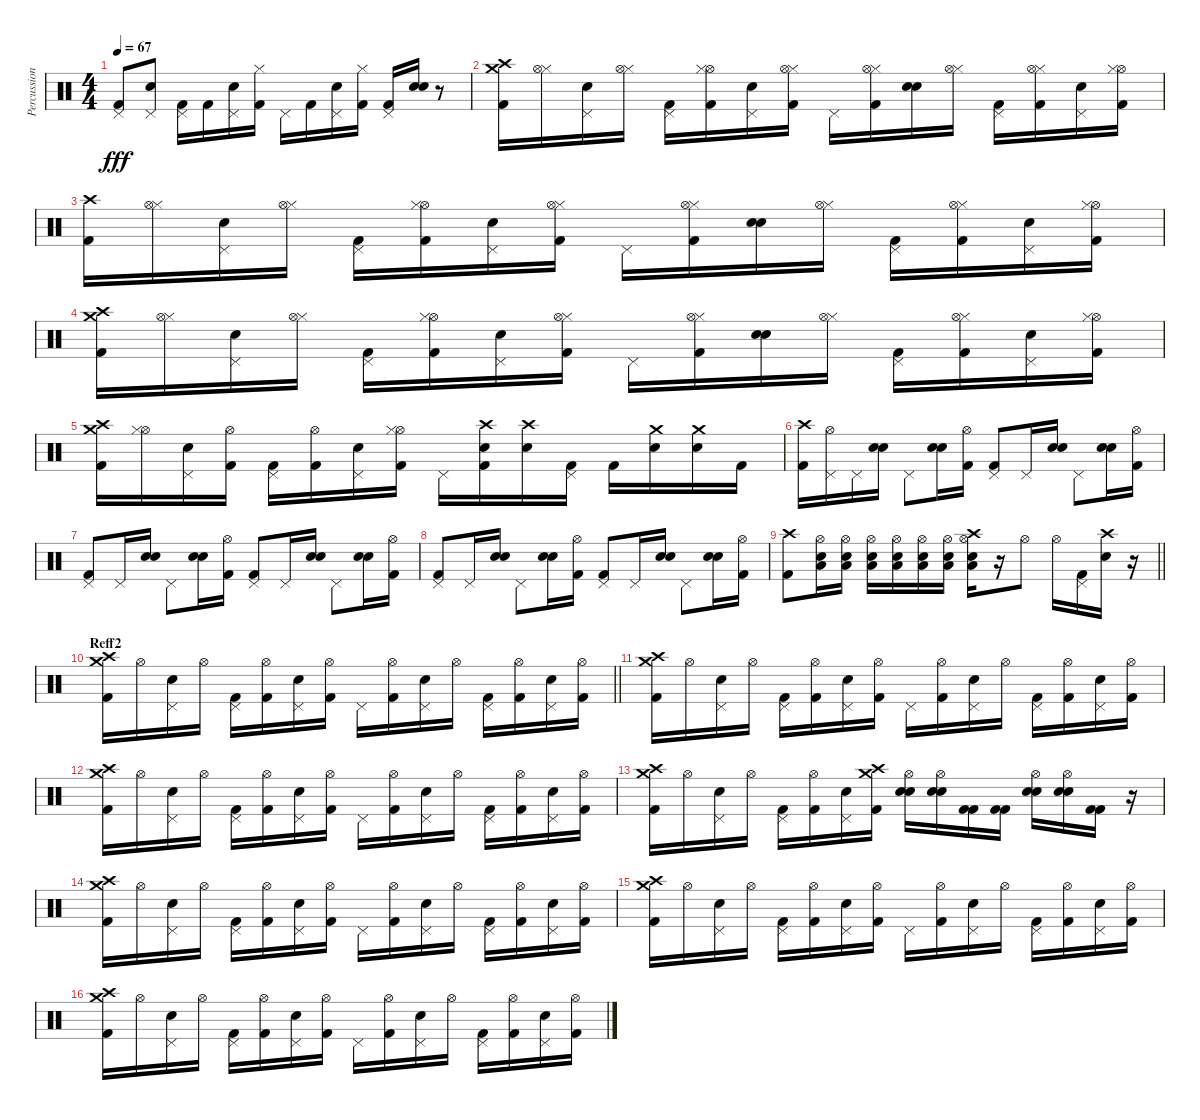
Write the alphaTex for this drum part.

\track ("Percussion(Tomi)" "Percussion") {instrument percussion}
\staff {score}
\articulation defaults
\ts (4 4)
\tempo 67
\clef neutral
\ks c
("Kick (hit) 2" "Pedal Hi-Hat (hit)").8{dy fff} ("Electric Snare (hit)" "Pedal Hi-Hat (hit)").8 ("Pedal Hi-Hat (hit)" "Kick (hit) 2").16 "Kick (hit) 2".16 ("Pedal Hi-Hat (hit)" "Electric Snare (hit)").16 ("Kick (hit) 2" "Hi-Hat (closed)").16 "Pedal Hi-Hat (hit)".16 "Kick (hit) 2".16 ("Pedal Hi-Hat (hit)" "Electric Snare (hit)").16 ("Kick (hit) 2" "Hi-Hat (closed)").16 ("Pedal Hi-Hat (hit)" "Kick (hit) 2").16 ("Electric Snare (hit)" "Electric Snare (hit)").16 r.8 |
("Kick (hit) 2" "Crash high (hit)" "Crash medium (hit)").16 ("Hi-Hat (closed)" "Hi-Hat (open)").16 ("Electric Snare (hit)" "Pedal Hi-Hat (hit)").16 ("Hi-Hat (closed)" "Hi-Hat (open)").16 ("Kick (hit) 2" "Pedal Hi-Hat (hit)").16 ("Kick (hit) 2" "Hi-Hat (open)" "Hi-Hat (closed)").16 ("Pedal Hi-Hat (hit)" "Electric Snare (hit)").16 ("Kick (hit) 2" "Hi-Hat (closed)" "Hi-Hat (open)").16 "Pedal Hi-Hat (hit)".16 ("Hi-Hat (closed)" "Hi-Hat (open)" "Kick (hit) 2").16 ("Electric Snare (hit)" "Electric Snare (hit)").16 ("Hi-Hat (closed)" "Hi-Hat (open)").16 ("Kick (hit) 2" "Pedal Hi-Hat (hit)").16 ("Kick (hit) 2" "Hi-Hat (closed)" "Hi-Hat (open)").16 ("Pedal Hi-Hat (hit)" "Electric Snare (hit)").16 ("Hi-Hat (open)" "Kick (hit) 2" "Hi-Hat (closed)").16 |
("Kick (hit) 2" "Crash high (hit)").16 ("Hi-Hat (closed)" "Hi-Hat (open)").16 ("Electric Snare (hit)" "Pedal Hi-Hat (hit)").16 ("Hi-Hat (closed)" "Hi-Hat (open)").16 ("Kick (hit) 2" "Pedal Hi-Hat (hit)").16 ("Kick (hit) 2" "Hi-Hat (open)" "Hi-Hat (closed)").16 ("Pedal Hi-Hat (hit)" "Electric Snare (hit)").16 ("Kick (hit) 2" "Hi-Hat (closed)" "Hi-Hat (open)").16 "Pedal Hi-Hat (hit)".16 ("Hi-Hat (closed)" "Hi-Hat (open)" "Kick (hit) 2").16 ("Electric Snare (hit)" "Electric Snare (hit)").16 ("Hi-Hat (closed)" "Hi-Hat (open)").16 ("Kick (hit) 2" "Pedal Hi-Hat (hit)").16 ("Kick (hit) 2" "Hi-Hat (closed)" "Hi-Hat (open)").16 ("Pedal Hi-Hat (hit)" "Electric Snare (hit)").16 ("Hi-Hat (open)" "Kick (hit) 2" "Hi-Hat (closed)").16 |
("Kick (hit) 2" "Crash medium (hit)" "Crash high (hit)").16 ("Hi-Hat (closed)" "Hi-Hat (open)").16 ("Electric Snare (hit)" "Pedal Hi-Hat (hit)").16 ("Hi-Hat (closed)" "Hi-Hat (open)").16 ("Kick (hit) 2" "Pedal Hi-Hat (hit)").16 ("Kick (hit) 2" "Hi-Hat (open)" "Hi-Hat (closed)").16 ("Pedal Hi-Hat (hit)" "Electric Snare (hit)").16 ("Kick (hit) 2" "Hi-Hat (closed)" "Hi-Hat (open)").16 "Pedal Hi-Hat (hit)".16 ("Hi-Hat (closed)" "Hi-Hat (open)" "Kick (hit) 2").16 ("Electric Snare (hit)" "Electric Snare (hit)").16 ("Hi-Hat (closed)" "Hi-Hat (open)").16 ("Kick (hit) 2" "Pedal Hi-Hat (hit)").16 ("Kick (hit) 2" "Hi-Hat (closed)" "Hi-Hat (open)").16 ("Pedal Hi-Hat (hit)" "Electric Snare (hit)").16 ("Hi-Hat (open)" "Kick (hit) 2" "Hi-Hat (closed)").16 |
("Kick (hit) 2" "Crash high (hit)" "Crash medium (hit)").16 ("Hi-Hat (open)" "Hi-Hat (closed)").16 ("Pedal Hi-Hat (hit)" "Electric Snare (hit)").16 ("Kick (hit) 2" "Hi-Hat (open)").16 ("Kick (hit) 2" "Pedal Hi-Hat (hit)").16 ("Hi-Hat (open)" "Kick (hit) 2").16 ("Electric Snare (hit)" "Pedal Hi-Hat (hit)").16 ("Hi-Hat (open)" "Kick (hit) 2" "Hi-Hat (closed)").16 "Pedal Hi-Hat (hit)".16 ("Kick (hit) 2" "Electric Snare (hit)" "Crash high (hit)").16 ("Electric Snare (hit)" "Crash high (hit)").16 ("Pedal Hi-Hat (hit)" "Kick (hit) 2").16 "Kick (hit) 2".16 ("Electric Snare (hit)" "Crash medium (hit)").16 ("Electric Snare (hit)" "Crash medium (hit)").16 "Kick (hit) 2".16 |
("Kick (hit) 2" "Crash high (hit)").16 ("Hi-Hat (open)" "Pedal Hi-Hat (hit)").16 "Pedal Hi-Hat (hit)".16 ("Electric Snare (hit)" "Electric Snare (hit)").16{bd 240} "Pedal Hi-Hat (hit)".8 ("Electric Snare (hit)" "Electric Snare (hit)").16{bd 240} ("Hi-Hat (open)" "Kick (hit) 2").16 ("Kick (hit) 2" "Pedal Hi-Hat (hit)").8 "Pedal Hi-Hat (hit)".16 ("Electric Snare (hit)" "Electric Snare (hit)").16{bd 240} "Pedal Hi-Hat (hit)".8 ("Electric Snare (hit)" "Electric Snare (hit)").16{bd 240} ("Kick (hit) 2" "Hi-Hat (open)").16 |
("Kick (hit) 2" "Pedal Hi-Hat (hit)").8 "Pedal Hi-Hat (hit)".16 ("Electric Snare (hit)" "Electric Snare (hit)").16{bd 240} "Pedal Hi-Hat (hit)".8 ("Electric Snare (hit)" "Electric Snare (hit)").16{bd 240} ("Kick (hit) 2" "Hi-Hat (open)").16 ("Kick (hit) 2" "Pedal Hi-Hat (hit)").8 "Pedal Hi-Hat (hit)".16 ("Electric Snare (hit)" "Electric Snare (hit)").16{bd 240} "Pedal Hi-Hat (hit)".8 ("Electric Snare (hit)" "Electric Snare (hit)").16{bd 240} ("Kick (hit) 2" "Hi-Hat (open)").16 |
("Kick (hit) 2" "Pedal Hi-Hat (hit)").8 "Pedal Hi-Hat (hit)".16 ("Electric Snare (hit)" "Electric Snare (hit)").16{bd 240} "Pedal Hi-Hat (hit)".8 ("Electric Snare (hit)" "Electric Snare (hit)").16{bd 240} ("Kick (hit) 2" "Hi-Hat (open)").16 ("Kick (hit) 2" "Pedal Hi-Hat (hit)").8 "Pedal Hi-Hat (hit)".16 ("Electric Snare (hit)" "Electric Snare (hit)").16{bd 240} "Pedal Hi-Hat (hit)".8 ("Electric Snare (hit)" "Electric Snare (hit)").16{bd 240} ("Kick (hit) 2" "Hi-Hat (open)").16 |
\barLineRight lightlight
("Kick (hit) 2" "Crash high (hit)").8{volume 16} ("Hi-Hat (open)" "Electric Snare (hit)" "Low Floor Tom (hit)").16 ("Hi-Hat (open)" "Electric Snare (hit)" "Low Floor Tom (hit)").16 ("Hi-Hat (open)" "Electric Snare (hit)" "Low Floor Tom (hit)").16 ("Low Floor Tom (hit)" "Electric Snare (hit)" "Hi-Hat (open)").16 ("Low Floor Tom (hit)" "Electric Snare (hit)" "Hi-Hat (open)").16 ("Low Floor Tom (hit)" "Electric Snare (hit)" "Hi-Hat (open)").16 ("Electric Snare (hit)" "Low Floor Tom (hit)" "Hi-Hat (open)" "Crash high (hit)").16 r.16 "Hi-Hat (open)".8 "Hi-Hat (open)".16 ("Pedal Hi-Hat (hit)" "Kick (hit) 2").16 ("Electric Snare (hit)" "Crash high (hit)").16 r.16 |
\section ("" "Reff2")
\barLineRight lightlight
("Kick (hit) 2" "Crash high (hit)" "Crash medium (hit)").16 "Hi-Hat (open)".16 ("Electric Snare (hit)" "Pedal Hi-Hat (hit)").16 "Hi-Hat (open)".16 ("Kick (hit) 2" "Pedal Hi-Hat (hit)").16 ("Kick (hit) 2" "Hi-Hat (open)").16 ("Pedal Hi-Hat (hit)" "Electric Snare (hit)").16 ("Kick (hit) 2" "Hi-Hat (open)").16 "Pedal Hi-Hat (hit)".16 ("Kick (hit) 2" "Hi-Hat (open)").16 ("Pedal Hi-Hat (hit)" "Electric Snare (hit)").16 "Hi-Hat (open)".16 ("Kick (hit) 2" "Pedal Hi-Hat (hit)").16 ("Kick (hit) 2" "Hi-Hat (open)").16 ("Pedal Hi-Hat (hit)" "Electric Snare (hit)").16 ("Kick (hit) 2" "Hi-Hat (open)").16 |
("Kick (hit) 2" "Crash high (hit)" "Crash medium (hit)").16 "Hi-Hat (open)".16 ("Electric Snare (hit)" "Pedal Hi-Hat (hit)").16 "Hi-Hat (open)".16 ("Kick (hit) 2" "Pedal Hi-Hat (hit)").16 ("Kick (hit) 2" "Hi-Hat (open)").16 ("Pedal Hi-Hat (hit)" "Electric Snare (hit)").16 ("Kick (hit) 2" "Hi-Hat (open)").16 "Pedal Hi-Hat (hit)".16 ("Kick (hit) 2" "Hi-Hat (open)").16 ("Pedal Hi-Hat (hit)" "Electric Snare (hit)").16 "Hi-Hat (open)".16 ("Kick (hit) 2" "Pedal Hi-Hat (hit)").16 ("Kick (hit) 2" "Hi-Hat (open)").16 ("Pedal Hi-Hat (hit)" "Electric Snare (hit)").16 ("Kick (hit) 2" "Hi-Hat (open)").16 |
("Kick (hit) 2" "Crash high (hit)" "Crash medium (hit)").16 "Hi-Hat (open)".16 ("Electric Snare (hit)" "Pedal Hi-Hat (hit)").16 "Hi-Hat (open)".16 ("Kick (hit) 2" "Pedal Hi-Hat (hit)").16 ("Kick (hit) 2" "Hi-Hat (open)").16 ("Pedal Hi-Hat (hit)" "Electric Snare (hit)").16 ("Kick (hit) 2" "Hi-Hat (open)").16 "Pedal Hi-Hat (hit)".16 ("Kick (hit) 2" "Hi-Hat (open)").16 ("Pedal Hi-Hat (hit)" "Electric Snare (hit)").16 "Hi-Hat (open)".16 ("Kick (hit) 2" "Pedal Hi-Hat (hit)").16 ("Kick (hit) 2" "Hi-Hat (open)").16 ("Pedal Hi-Hat (hit)" "Electric Snare (hit)").16 ("Kick (hit) 2" "Hi-Hat (open)").16 |
("Kick (hit) 2" "Crash medium (hit)" "Crash high (hit)").16 "Hi-Hat (open)".16 ("Electric Snare (hit)" "Pedal Hi-Hat (hit)").16 "Hi-Hat (open)".16 ("Pedal Hi-Hat (hit)" "Kick (hit) 2").16 ("Kick (hit) 2" "Hi-Hat (open)").16 ("Pedal Hi-Hat (hit)" "Electric Snare (hit)").16 ("Kick (hit) 2" "Crash high (hit)" "Crash medium (hit)").16 ("Electric Snare (hit)" "Hi-Hat (open)" "Electric Snare (hit)").16 ("Electric Snare (hit)" "Hi-Hat (open)" "Electric Snare (hit)").16 ("Kick (hit) 2" "Kick (hit) 2").16 ("Kick (hit) 2" "Kick (hit) 2").16 ("Electric Snare (hit)" "Hi-Hat (open)" "Electric Snare (hit)").16 ("Hi-Hat (open)" "Electric Snare (hit)" "Electric Snare (hit)").16 ("Kick (hit) 2" "Kick (hit) 2").16 r.16 |
("Kick (hit) 2" "Crash high (hit)" "Crash medium (hit)").16 "Hi-Hat (open)".16 ("Electric Snare (hit)" "Pedal Hi-Hat (hit)").16 "Hi-Hat (open)".16 ("Kick (hit) 2" "Pedal Hi-Hat (hit)").16 ("Kick (hit) 2" "Hi-Hat (open)").16 ("Pedal Hi-Hat (hit)" "Electric Snare (hit)").16 ("Kick (hit) 2" "Hi-Hat (open)").16 "Pedal Hi-Hat (hit)".16 ("Kick (hit) 2" "Hi-Hat (open)").16 ("Pedal Hi-Hat (hit)" "Electric Snare (hit)").16 "Hi-Hat (open)".16 ("Kick (hit) 2" "Pedal Hi-Hat (hit)").16 ("Kick (hit) 2" "Hi-Hat (open)").16 ("Pedal Hi-Hat (hit)" "Electric Snare (hit)").16 ("Kick (hit) 2" "Hi-Hat (open)").16 |
("Kick (hit) 2" "Crash high (hit)" "Crash medium (hit)").16 "Hi-Hat (open)".16 ("Electric Snare (hit)" "Pedal Hi-Hat (hit)").16 "Hi-Hat (open)".16 ("Kick (hit) 2" "Pedal Hi-Hat (hit)").16 ("Kick (hit) 2" "Hi-Hat (open)").16 ("Pedal Hi-Hat (hit)" "Electric Snare (hit)").16 ("Kick (hit) 2" "Hi-Hat (open)").16 "Pedal Hi-Hat (hit)".16 ("Kick (hit) 2" "Hi-Hat (open)").16 ("Pedal Hi-Hat (hit)" "Electric Snare (hit)").16 "Hi-Hat (open)".16 ("Kick (hit) 2" "Pedal Hi-Hat (hit)").16 ("Kick (hit) 2" "Hi-Hat (open)").16 ("Pedal Hi-Hat (hit)" "Electric Snare (hit)").16 ("Kick (hit) 2" "Hi-Hat (open)").16 |
("Kick (hit) 2" "Crash high (hit)" "Crash medium (hit)").16 "Hi-Hat (open)".16 ("Electric Snare (hit)" "Pedal Hi-Hat (hit)").16 "Hi-Hat (open)".16 ("Kick (hit) 2" "Pedal Hi-Hat (hit)").16 ("Kick (hit) 2" "Hi-Hat (open)").16 ("Pedal Hi-Hat (hit)" "Electric Snare (hit)").16 ("Kick (hit) 2" "Hi-Hat (open)").16 "Pedal Hi-Hat (hit)".16 ("Kick (hit) 2" "Hi-Hat (open)").16 ("Pedal Hi-Hat (hit)" "Electric Snare (hit)").16 "Hi-Hat (open)".16 ("Kick (hit) 2" "Pedal Hi-Hat (hit)").16 ("Kick (hit) 2" "Hi-Hat (open)").16 ("Pedal Hi-Hat (hit)" "Electric Snare (hit)").16 ("Kick (hit) 2" "Hi-Hat (open)").16
